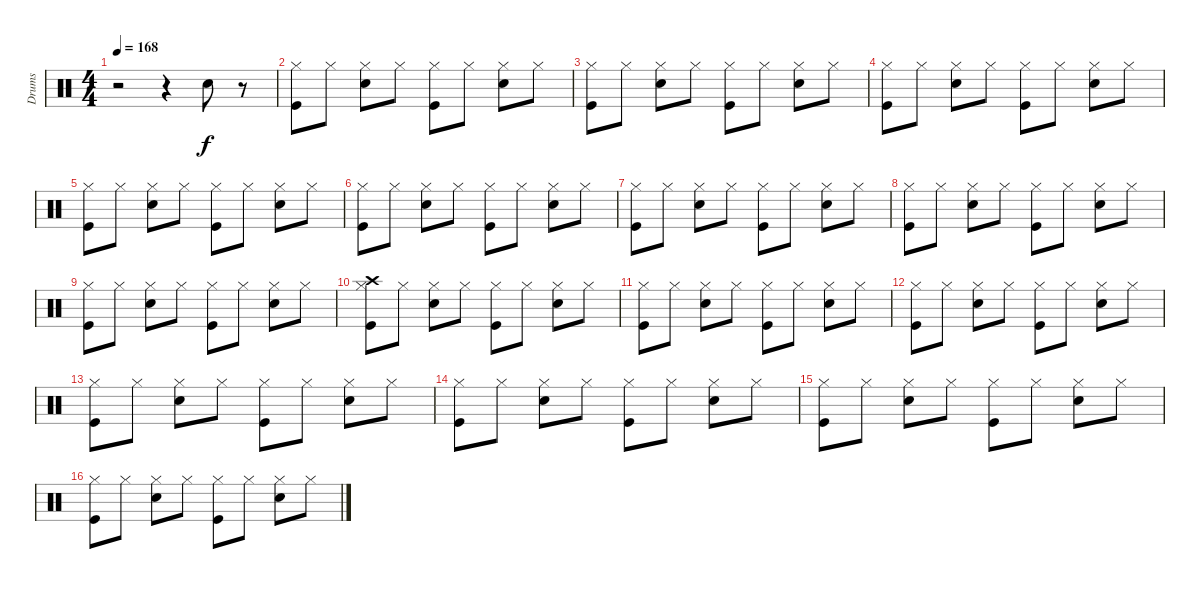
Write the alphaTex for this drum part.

\track ("Drums" "Drums") {instrument percussion}
\staff {score}
\articulation defaults
\ts (4 4)
\tempo 168
\clef neutral
\ks c
r.2{dy f} r.4 "Snare (hit) 2".8 r.8 |
("Kick (hit)" "Hi-Hat (closed)").8 "Hi-Hat (closed)".8 ("Snare (hit) 2" "Hi-Hat (closed)").8 "Hi-Hat (closed)".8 ("Kick (hit)" "Hi-Hat (closed)").8 "Hi-Hat (closed)".8 ("Snare (hit) 2" "Hi-Hat (closed)").8 "Hi-Hat (closed)".8 |
("Kick (hit)" "Hi-Hat (closed)").8 "Hi-Hat (closed)".8 ("Snare (hit) 2" "Hi-Hat (closed)").8 "Hi-Hat (closed)".8 ("Kick (hit)" "Hi-Hat (closed)").8 "Hi-Hat (closed)".8 ("Snare (hit) 2" "Hi-Hat (closed)").8 "Hi-Hat (closed)".8 |
("Kick (hit)" "Hi-Hat (closed)").8 "Hi-Hat (closed)".8 ("Snare (hit) 2" "Hi-Hat (closed)").8 "Hi-Hat (closed)".8 ("Kick (hit)" "Hi-Hat (closed)").8 "Hi-Hat (closed)".8 ("Snare (hit) 2" "Hi-Hat (closed)").8 "Hi-Hat (closed)".8 |
("Kick (hit)" "Hi-Hat (closed)").8 "Hi-Hat (closed)".8 ("Snare (hit) 2" "Hi-Hat (closed)").8 "Hi-Hat (closed)".8 ("Kick (hit)" "Hi-Hat (closed)").8 "Hi-Hat (closed)".8 ("Snare (hit) 2" "Hi-Hat (closed)").8 "Hi-Hat (closed)".8 |
("Kick (hit)" "Hi-Hat (closed)").8 "Hi-Hat (closed)".8 ("Snare (hit) 2" "Hi-Hat (closed)").8 "Hi-Hat (closed)".8 ("Kick (hit)" "Hi-Hat (closed)").8 "Hi-Hat (closed)".8 ("Snare (hit) 2" "Hi-Hat (closed)").8 "Hi-Hat (closed)".8 |
("Kick (hit)" "Hi-Hat (closed)").8 "Hi-Hat (closed)".8 ("Snare (hit) 2" "Hi-Hat (closed)").8 "Hi-Hat (closed)".8 ("Kick (hit)" "Hi-Hat (closed)").8 "Hi-Hat (closed)".8 ("Snare (hit) 2" "Hi-Hat (closed)").8 "Hi-Hat (closed)".8 |
("Kick (hit)" "Hi-Hat (closed)").8 "Hi-Hat (closed)".8 ("Snare (hit) 2" "Hi-Hat (closed)").8 "Hi-Hat (closed)".8 ("Kick (hit)" "Hi-Hat (closed)").8 "Hi-Hat (closed)".8 ("Snare (hit) 2" "Hi-Hat (closed)").8 "Hi-Hat (closed)".8 |
("Kick (hit)" "Hi-Hat (closed)").8 "Hi-Hat (closed)".8 ("Snare (hit) 2" "Hi-Hat (closed)").8 "Hi-Hat (closed)".8 ("Kick (hit)" "Hi-Hat (closed)").8 "Hi-Hat (closed)".8 ("Snare (hit) 2" "Hi-Hat (closed)").8 "Hi-Hat (closed)".8 |
("Kick (hit)" "Hi-Hat (closed)" "Crash high (hit)").8 "Hi-Hat (closed)".8 ("Snare (hit) 2" "Hi-Hat (closed)").8 "Hi-Hat (closed)".8 ("Kick (hit)" "Hi-Hat (closed)").8 "Hi-Hat (closed)".8 ("Snare (hit) 2" "Hi-Hat (closed)").8 "Hi-Hat (closed)".8 |
("Kick (hit)" "Hi-Hat (closed)").8 "Hi-Hat (closed)".8 ("Snare (hit) 2" "Hi-Hat (closed)").8 "Hi-Hat (closed)".8 ("Kick (hit)" "Hi-Hat (closed)").8 "Hi-Hat (closed)".8 ("Snare (hit) 2" "Hi-Hat (closed)").8 "Hi-Hat (closed)".8 |
("Kick (hit)" "Hi-Hat (closed)").8 "Hi-Hat (closed)".8 ("Snare (hit) 2" "Hi-Hat (closed)").8 "Hi-Hat (closed)".8 ("Kick (hit)" "Hi-Hat (closed)").8 "Hi-Hat (closed)".8 ("Snare (hit) 2" "Hi-Hat (closed)").8 "Hi-Hat (closed)".8 |
("Kick (hit)" "Hi-Hat (closed)").8 "Hi-Hat (closed)".8 ("Snare (hit) 2" "Hi-Hat (closed)").8 "Hi-Hat (closed)".8 ("Kick (hit)" "Hi-Hat (closed)").8 "Hi-Hat (closed)".8 ("Snare (hit) 2" "Hi-Hat (closed)").8 "Hi-Hat (closed)".8 |
("Kick (hit)" "Hi-Hat (closed)").8 "Hi-Hat (closed)".8 ("Snare (hit) 2" "Hi-Hat (closed)").8 "Hi-Hat (closed)".8 ("Kick (hit)" "Hi-Hat (closed)").8 "Hi-Hat (closed)".8 ("Snare (hit) 2" "Hi-Hat (closed)").8 "Hi-Hat (closed)".8 |
("Kick (hit)" "Hi-Hat (closed)").8 "Hi-Hat (closed)".8 ("Snare (hit) 2" "Hi-Hat (closed)").8 "Hi-Hat (closed)".8 ("Kick (hit)" "Hi-Hat (closed)").8 "Hi-Hat (closed)".8 ("Snare (hit) 2" "Hi-Hat (closed)").8 "Hi-Hat (closed)".8 |
("Kick (hit)" "Hi-Hat (closed)").8 "Hi-Hat (closed)".8 ("Snare (hit) 2" "Hi-Hat (closed)").8 "Hi-Hat (closed)".8 ("Kick (hit)" "Hi-Hat (closed)").8 "Hi-Hat (closed)".8 ("Snare (hit) 2" "Hi-Hat (closed)").8 "Hi-Hat (closed)".8
